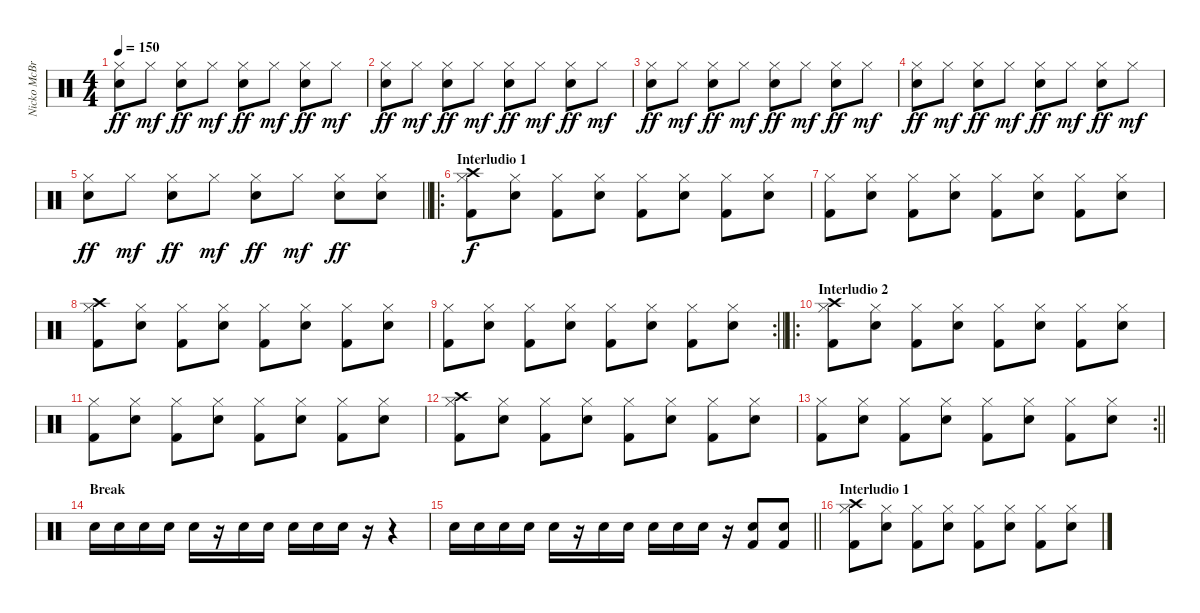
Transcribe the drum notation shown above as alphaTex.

\track ("Nicko McBrain" "Nicko McBr") {instrument percussion}
\staff {score}
\articulation defaults
\ts (4 4)
\tempo 150
\clef neutral
\ks c
("Hi-Hat (closed)" "Snare (hit) 2").8{dy ff} "Hi-Hat (closed)".8{dy mf} ("Hi-Hat (closed)" "Snare (hit) 2").8{dy ff} "Hi-Hat (closed)".8{dy mf} ("Hi-Hat (closed)" "Snare (hit) 2").8{dy ff} "Hi-Hat (closed)".8{dy mf} ("Hi-Hat (closed)" "Snare (hit) 2").8{dy ff} "Hi-Hat (closed)".8{dy mf} |
("Hi-Hat (closed)" "Snare (hit) 2").8{dy ff} "Hi-Hat (closed)".8{dy mf} ("Hi-Hat (closed)" "Snare (hit) 2").8{dy ff} "Hi-Hat (closed)".8{dy mf} ("Hi-Hat (closed)" "Snare (hit) 2").8{dy ff} "Hi-Hat (closed)".8{dy mf} ("Hi-Hat (closed)" "Snare (hit) 2").8{dy ff} "Hi-Hat (closed)".8{dy mf} |
("Hi-Hat (closed)" "Snare (hit) 2").8{dy ff} "Hi-Hat (closed)".8{dy mf} ("Hi-Hat (closed)" "Snare (hit) 2").8{dy ff} "Hi-Hat (closed)".8{dy mf} ("Hi-Hat (closed)" "Snare (hit) 2").8{dy ff} "Hi-Hat (closed)".8{dy mf} ("Hi-Hat (closed)" "Snare (hit) 2").8{dy ff} "Hi-Hat (closed)".8{dy mf} |
("Hi-Hat (closed)" "Snare (hit) 2").8{dy ff} "Hi-Hat (closed)".8{dy mf} ("Hi-Hat (closed)" "Snare (hit) 2").8{dy ff} "Hi-Hat (closed)".8{dy mf} ("Hi-Hat (closed)" "Snare (hit) 2").8{dy ff} "Hi-Hat (closed)".8{dy mf} ("Hi-Hat (closed)" "Snare (hit) 2").8{dy ff} "Hi-Hat (closed)".8{dy mf} |
\barLineRight lightlight
("Hi-Hat (closed)" "Snare (hit) 2").8{dy ff} "Hi-Hat (closed)".8{dy mf} ("Hi-Hat (closed)" "Snare (hit) 2").8{dy ff} "Hi-Hat (closed)".8{dy mf} ("Hi-Hat (closed)" "Snare (hit) 2").8{dy ff} "Hi-Hat (closed)".8{dy mf} ("Hi-Hat (closed)" "Snare (hit) 2").8{dy ff} ("Hi-Hat (closed)" "Snare (hit) 2").8 |
\ro
\section ("" "Interludio 1")
("Hi-Hat (closed)" "Kick (hit) 2" "Crash high (hit)").8{dy f} ("Hi-Hat (closed)" "Snare (hit) 2").8 ("Hi-Hat (closed)" "Kick (hit) 2").8 ("Hi-Hat (closed)" "Snare (hit) 2").8 ("Hi-Hat (closed)" "Kick (hit) 2").8 ("Hi-Hat (closed)" "Snare (hit) 2").8 ("Hi-Hat (closed)" "Kick (hit) 2").8 ("Hi-Hat (closed)" "Snare (hit) 2").8 |
("Hi-Hat (closed)" "Kick (hit) 2").8 ("Hi-Hat (closed)" "Snare (hit) 2").8 ("Hi-Hat (closed)" "Kick (hit) 2").8 ("Hi-Hat (closed)" "Snare (hit) 2").8 ("Hi-Hat (closed)" "Kick (hit) 2").8 ("Hi-Hat (closed)" "Snare (hit) 2").8 ("Hi-Hat (closed)" "Kick (hit) 2").8 ("Hi-Hat (closed)" "Snare (hit) 2").8 |
("Hi-Hat (closed)" "Kick (hit) 2" "Crash high (hit)").8 ("Hi-Hat (closed)" "Snare (hit) 2").8 ("Hi-Hat (closed)" "Kick (hit) 2").8 ("Hi-Hat (closed)" "Snare (hit) 2").8 ("Hi-Hat (closed)" "Kick (hit) 2").8 ("Hi-Hat (closed)" "Snare (hit) 2").8 ("Hi-Hat (closed)" "Kick (hit) 2").8 ("Hi-Hat (closed)" "Snare (hit) 2").8 |
\rc 2
\barLineRight lightlight
("Hi-Hat (closed)" "Kick (hit) 2").8 ("Hi-Hat (closed)" "Snare (hit) 2").8 ("Hi-Hat (closed)" "Kick (hit) 2").8 ("Hi-Hat (closed)" "Snare (hit) 2").8 ("Hi-Hat (closed)" "Kick (hit) 2").8 ("Hi-Hat (closed)" "Snare (hit) 2").8 ("Hi-Hat (closed)" "Kick (hit) 2").8 ("Hi-Hat (closed)" "Snare (hit) 2").8 |
\ro
\section ("" "Interludio 2")
("Hi-Hat (closed)" "Kick (hit) 2" "Crash high (hit)").8 ("Hi-Hat (closed)" "Snare (hit) 2").8 ("Hi-Hat (closed)" "Kick (hit) 2").8 ("Hi-Hat (closed)" "Snare (hit) 2").8 ("Hi-Hat (closed)" "Kick (hit) 2").8 ("Hi-Hat (closed)" "Snare (hit) 2").8 ("Hi-Hat (closed)" "Kick (hit) 2").8 ("Hi-Hat (closed)" "Snare (hit) 2").8 |
("Hi-Hat (closed)" "Kick (hit) 2").8 ("Hi-Hat (closed)" "Snare (hit) 2").8 ("Hi-Hat (closed)" "Kick (hit) 2").8 ("Hi-Hat (closed)" "Snare (hit) 2").8 ("Hi-Hat (closed)" "Kick (hit) 2").8 ("Hi-Hat (closed)" "Snare (hit) 2").8 ("Hi-Hat (closed)" "Kick (hit) 2").8 ("Hi-Hat (closed)" "Snare (hit) 2").8 |
("Hi-Hat (closed)" "Kick (hit) 2" "Crash high (hit)").8 ("Hi-Hat (closed)" "Snare (hit) 2").8 ("Hi-Hat (closed)" "Kick (hit) 2").8 ("Hi-Hat (closed)" "Snare (hit) 2").8 ("Hi-Hat (closed)" "Kick (hit) 2").8 ("Hi-Hat (closed)" "Snare (hit) 2").8 ("Hi-Hat (closed)" "Kick (hit) 2").8 ("Hi-Hat (closed)" "Snare (hit) 2").8 |
\rc 2
\barLineRight lightlight
("Hi-Hat (closed)" "Kick (hit) 2").8 ("Hi-Hat (closed)" "Snare (hit) 2").8 ("Hi-Hat (closed)" "Kick (hit) 2").8 ("Hi-Hat (closed)" "Snare (hit) 2").8 ("Hi-Hat (closed)" "Kick (hit) 2").8 ("Hi-Hat (closed)" "Snare (hit) 2").8 ("Hi-Hat (closed)" "Kick (hit) 2").8 ("Hi-Hat (closed)" "Snare (hit) 2").8 |
\section ("" "Break")
"Snare (hit) 2".16 "Snare (hit) 2".16 "Snare (hit) 2".16 "Snare (hit) 2".16 "Snare (hit) 2".16 r.16 "Snare (hit) 2".16 "Snare (hit) 2".16 "Snare (hit) 2".16 "Snare (hit) 2".16 "Snare (hit) 2".16 r.16 r.4 |
\barLineRight lightlight "Snare (hit) 2".16 "Snare (hit) 2".16 "Snare (hit) 2".16 "Snare (hit) 2".16 "Snare (hit) 2".16
r.16 "Snare (hit) 2".16 "Snare (hit) 2".16 "Snare (hit) 2".16 "Snare (hit) 2".16 "Snare (hit) 2".16 r.16 ("Snare (hit) 2" "Kick (hit) 2").8 ("Snare (hit) 2" "Kick (hit) 2").8 |
\section ("" "Interludio 1")
("Hi-Hat (closed)" "Kick (hit) 2" "Crash high (hit)").8 ("Hi-Hat (closed)" "Snare (hit) 2").8 ("Hi-Hat (closed)" "Kick (hit) 2").8 ("Hi-Hat (closed)" "Snare (hit) 2").8 ("Hi-Hat (closed)" "Kick (hit) 2").8 ("Hi-Hat (closed)" "Snare (hit) 2").8 ("Hi-Hat (closed)" "Kick (hit) 2").8 ("Hi-Hat (closed)" "Snare (hit) 2").8
